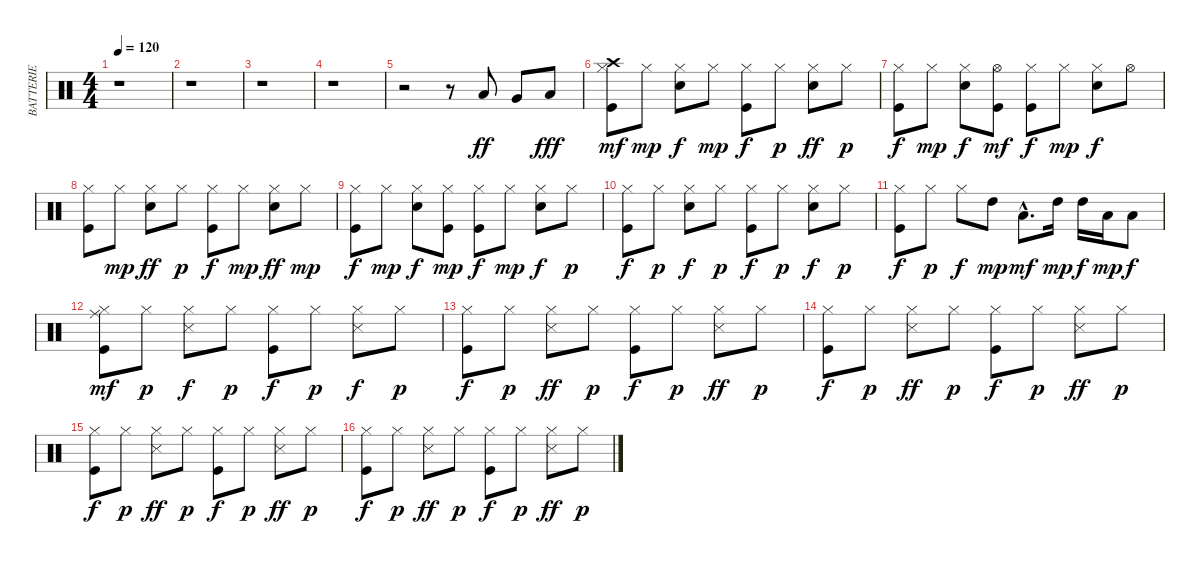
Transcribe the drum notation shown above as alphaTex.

\track ("BATTERIE" "BATTERIE") {instrument percussion}
\staff {score}
\articulation defaults
\ts (4 4)
\tempo 120
\clef neutral
\ks c
r.1{dy ff} |
r.1 |
r.1 |
r.1 |
r.2 r.8 "Low Tom (hit)".8 "Very Low Tom (hit)".8 "Low Floor Tom (hit)".8{dy fff} |
("Kick (hit)" "Hi-Hat (closed)" "Crash high (hit)").8{dy mf} "Hi-Hat (closed)".8{dy mp} ("Snare (hit) 2" "Hi-Hat (closed)").8{dy f} "Hi-Hat (closed)".8{dy mp} ("Kick (hit)" "Hi-Hat (closed)").8{dy f} "Hi-Hat (closed)".8{dy p} ("Snare (hit) 2" "Hi-Hat (closed)").8{dy ff} "Hi-Hat (closed)".8{dy p} |
("Kick (hit)" "Hi-Hat (closed)").8{dy f} "Hi-Hat (closed)".8{dy mp} ("Snare (hit) 2" "Hi-Hat (closed)").8{dy f} ("Kick (hit)" "Hi-Hat (open)").8{dy mf} ("Kick (hit)" "Hi-Hat (closed)").8{dy f} "Hi-Hat (closed)".8{dy mp} ("Snare (hit) 2" "Hi-Hat (closed)").8{dy f} "Hi-Hat (open)".8 |
("Kick (hit)" "Hi-Hat (closed)").8 "Hi-Hat (closed)".8{dy mp} ("Snare (hit) 2" "Hi-Hat (closed)").8{dy ff} "Hi-Hat (closed)".8{dy p} ("Kick (hit)" "Hi-Hat (closed)").8{dy f} "Hi-Hat (closed)".8{dy mp} ("Snare (hit) 2" "Hi-Hat (closed)").8{dy ff} "Hi-Hat (closed)".8{dy mp} |
("Kick (hit)" "Hi-Hat (closed)").8{dy f} "Hi-Hat (closed)".8{dy mp} ("Snare (hit) 2" "Hi-Hat (closed)").8{dy f} ("Kick (hit)" "Hi-Hat (closed)").8{dy mp} ("Kick (hit)" "Hi-Hat (closed)").8{dy f} "Hi-Hat (closed)".8{dy mp} ("Snare (hit) 2" "Hi-Hat (closed)").8{dy f} "Hi-Hat (closed)".8{dy p} |
("Kick (hit)" "Hi-Hat (closed)").8{dy f} "Hi-Hat (closed)".8{dy p} ("Snare (hit) 2" "Hi-Hat (closed)").8{dy f} "Hi-Hat (closed)".8{dy p} ("Kick (hit)" "Hi-Hat (closed)").8{dy f} "Hi-Hat (closed)".8{dy p} ("Snare (hit) 2" "Hi-Hat (closed)").8{dy f} "Hi-Hat (closed)".8{dy p} |
("Kick (hit)" "Hi-Hat (closed)").8{dy f} "Hi-Hat (closed)".8{dy p} "Hi-Hat (closed)".8{dy f} "High Tom (hit)".8{dy mp} "Low Tom (hit)"{hac}.8{d dy mf} "High Tom (hit)".16{dy mp} "High Tom (hit)".16{dy f} "Low Tom (hit)".16{dy mp} "Low Tom (hit)".8{dy f} |
("Kick (hit)" "Hi-Hat (closed)" "Ride (middle)").8{dy mf} "Hi-Hat (closed)".8{dy p} ("Hi-Hat (closed)" "Snare (side stick) 3").8{dy f} "Hi-Hat (closed)".8{dy p} ("Kick (hit)" "Hi-Hat (closed)").8{dy f} "Hi-Hat (closed)".8{dy p} ("Hi-Hat (closed)" "Snare (side stick) 3").8{dy f} "Hi-Hat (closed)".8{dy p} |
("Kick (hit)" "Hi-Hat (closed)").8{dy f} "Hi-Hat (closed)".8{dy p} ("Hi-Hat (closed)" "Snare (side stick) 3").8{dy ff} "Hi-Hat (closed)".8{dy p} ("Kick (hit)" "Hi-Hat (closed)").8{dy f} "Hi-Hat (closed)".8{dy p} ("Hi-Hat (closed)" "Snare (side stick) 3").8{dy ff} "Hi-Hat (closed)".8{dy p} |
("Kick (hit)" "Hi-Hat (closed)").8{dy f} "Hi-Hat (closed)".8{dy p} ("Hi-Hat (closed)" "Snare (side stick) 3").8{dy ff} "Hi-Hat (closed)".8{dy p} ("Kick (hit)" "Hi-Hat (closed)").8{dy f} "Hi-Hat (closed)".8{dy p} ("Hi-Hat (closed)" "Snare (side stick) 3").8{dy ff} "Hi-Hat (closed)".8{dy p} |
("Kick (hit)" "Hi-Hat (closed)").8{dy f} "Hi-Hat (closed)".8{dy p} ("Hi-Hat (closed)" "Snare (side stick) 3").8{dy ff} "Hi-Hat (closed)".8{dy p} ("Kick (hit)" "Hi-Hat (closed)").8{dy f} "Hi-Hat (closed)".8{dy p} ("Hi-Hat (closed)" "Snare (side stick) 3").8{dy ff} "Hi-Hat (closed)".8{dy p} |
("Kick (hit)" "Hi-Hat (closed)").8{dy f} "Hi-Hat (closed)".8{dy p} ("Hi-Hat (closed)" "Snare (side stick) 3").8{dy ff} "Hi-Hat (closed)".8{dy p} ("Kick (hit)" "Hi-Hat (closed)").8{dy f} "Hi-Hat (closed)".8{dy p} ("Hi-Hat (closed)" "Snare (side stick) 3").8{dy ff} "Hi-Hat (closed)".8{dy p}
